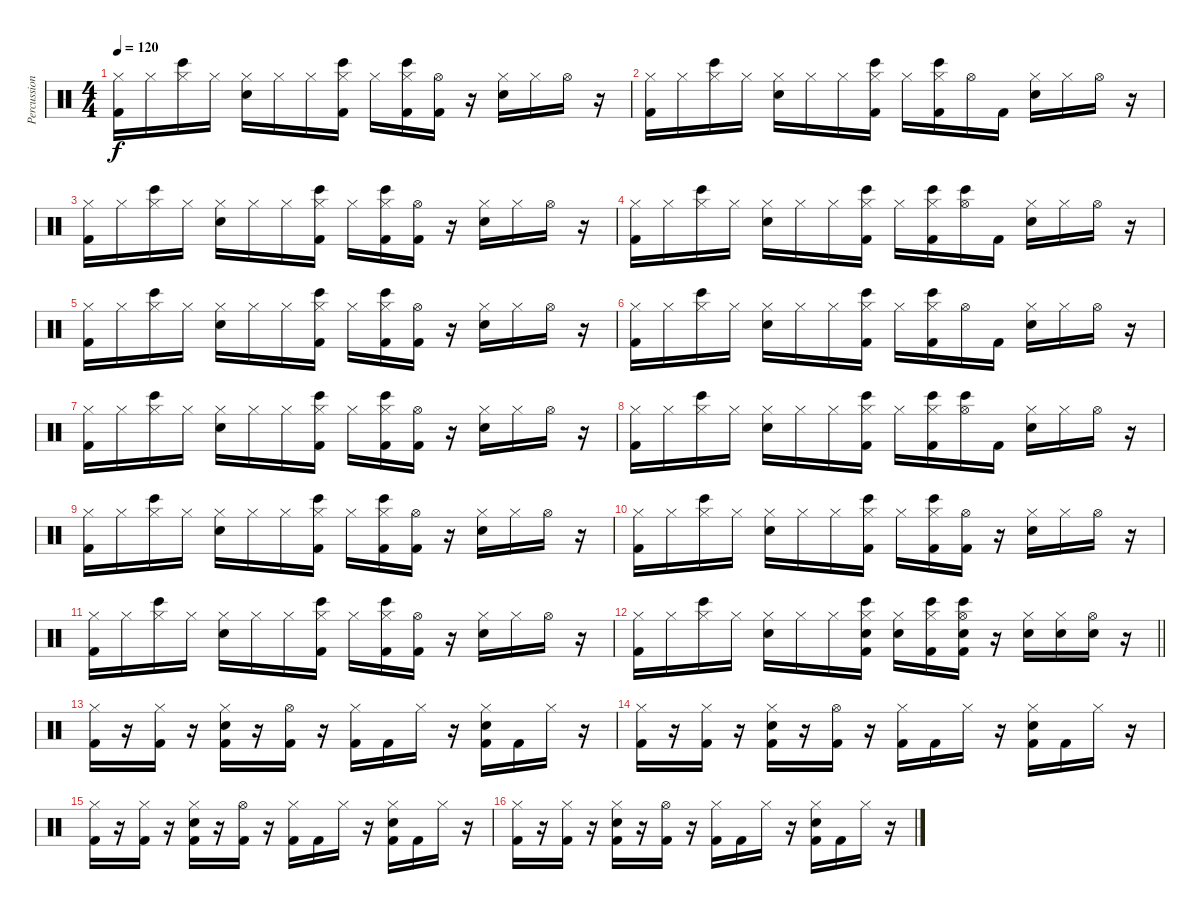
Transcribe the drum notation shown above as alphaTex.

\track ("Percussion" "Percussion") {instrument percussion}
\staff {score}
\articulation defaults
\ts (4 4)
\tempo 120
\clef neutral
\ks c
("Hi-Hat (closed)" "Kick (hit) 2").16{dy f} "Hi-Hat (closed)".16 ("Hi-Hat (closed)" "Bongo High (hit)").16 "Hi-Hat (closed)".16 ("Hi-Hat (closed)" "Snare (hit) 2").16 "Hi-Hat (closed)".16 "Hi-Hat (closed)".16 ("Hi-Hat (closed)" "Bongo High (hit)" "Kick (hit) 2").16 "Hi-Hat (closed)".16 ("Hi-Hat (closed)" "Bongo High (hit)" "Kick (hit) 2").16 ("Hi-Hat (open)" "Kick (hit) 2").16 r.16 ("Hi-Hat (closed)" "Snare (hit) 2").16 "Hi-Hat (closed)".16 "Hi-Hat (open)".16 r.16 |
("Hi-Hat (closed)" "Kick (hit) 2").16 "Hi-Hat (closed)".16 ("Hi-Hat (closed)" "Bongo High (hit)").16 "Hi-Hat (closed)".16 ("Hi-Hat (closed)" "Snare (hit) 2").16 "Hi-Hat (closed)".16 "Hi-Hat (closed)".16 ("Hi-Hat (closed)" "Bongo High (hit)" "Kick (hit) 2").16 "Hi-Hat (closed)".16 ("Hi-Hat (closed)" "Bongo High (hit)" "Kick (hit) 2").16 "Hi-Hat (open)".16 "Kick (hit) 2".16 ("Hi-Hat (closed)" "Snare (hit) 2").16 "Hi-Hat (closed)".16 "Hi-Hat (open)".16 r.16 |
("Hi-Hat (closed)" "Kick (hit) 2").16 "Hi-Hat (closed)".16 ("Hi-Hat (closed)" "Bongo High (hit)").16 "Hi-Hat (closed)".16 ("Hi-Hat (closed)" "Snare (hit) 2").16 "Hi-Hat (closed)".16 "Hi-Hat (closed)".16 ("Hi-Hat (closed)" "Bongo High (hit)" "Kick (hit) 2").16 "Hi-Hat (closed)".16 ("Hi-Hat (closed)" "Bongo High (hit)" "Kick (hit) 2").16 ("Hi-Hat (open)" "Kick (hit) 2").16 r.16 ("Hi-Hat (closed)" "Snare (hit) 2").16 "Hi-Hat (closed)".16 "Hi-Hat (open)".16 r.16 |
("Hi-Hat (closed)" "Kick (hit) 2").16 "Hi-Hat (closed)".16 ("Hi-Hat (closed)" "Bongo High (hit)").16 "Hi-Hat (closed)".16 ("Hi-Hat (closed)" "Snare (hit) 2").16 "Hi-Hat (closed)".16 "Hi-Hat (closed)".16 ("Hi-Hat (closed)" "Bongo High (hit)" "Kick (hit) 2").16 "Hi-Hat (closed)".16 ("Hi-Hat (closed)" "Bongo High (hit)" "Kick (hit) 2").16 ("Hi-Hat (open)" "Bongo High (hit)").16 "Kick (hit) 2".16 ("Hi-Hat (closed)" "Snare (hit) 2").16 "Hi-Hat (closed)".16 "Hi-Hat (open)".16 r.16 |
("Hi-Hat (closed)" "Kick (hit) 2").16 "Hi-Hat (closed)".16 ("Hi-Hat (closed)" "Bongo High (hit)").16 "Hi-Hat (closed)".16 ("Hi-Hat (closed)" "Snare (hit) 2").16 "Hi-Hat (closed)".16 "Hi-Hat (closed)".16 ("Hi-Hat (closed)" "Bongo High (hit)" "Kick (hit) 2").16 "Hi-Hat (closed)".16 ("Hi-Hat (closed)" "Bongo High (hit)" "Kick (hit) 2").16 ("Hi-Hat (open)" "Kick (hit) 2").16 r.16 ("Hi-Hat (closed)" "Snare (hit) 2").16 "Hi-Hat (closed)".16 "Hi-Hat (open)".16 r.16 |
("Hi-Hat (closed)" "Kick (hit) 2").16 "Hi-Hat (closed)".16 ("Hi-Hat (closed)" "Bongo High (hit)").16 "Hi-Hat (closed)".16 ("Hi-Hat (closed)" "Snare (hit) 2").16 "Hi-Hat (closed)".16 "Hi-Hat (closed)".16 ("Hi-Hat (closed)" "Bongo High (hit)" "Kick (hit) 2").16 "Hi-Hat (closed)".16 ("Hi-Hat (closed)" "Bongo High (hit)" "Kick (hit) 2").16 "Hi-Hat (open)".16 "Kick (hit) 2".16 ("Hi-Hat (closed)" "Snare (hit) 2").16 "Hi-Hat (closed)".16 "Hi-Hat (open)".16 r.16 |
("Hi-Hat (closed)" "Kick (hit) 2").16 "Hi-Hat (closed)".16 ("Hi-Hat (closed)" "Bongo High (hit)").16 "Hi-Hat (closed)".16 ("Hi-Hat (closed)" "Snare (hit) 2").16 "Hi-Hat (closed)".16 "Hi-Hat (closed)".16 ("Hi-Hat (closed)" "Bongo High (hit)" "Kick (hit) 2").16 "Hi-Hat (closed)".16 ("Hi-Hat (closed)" "Bongo High (hit)" "Kick (hit) 2").16 ("Hi-Hat (open)" "Kick (hit) 2").16 r.16 ("Hi-Hat (closed)" "Snare (hit) 2").16 "Hi-Hat (closed)".16 "Hi-Hat (open)".16 r.16 |
("Hi-Hat (closed)" "Kick (hit) 2").16 "Hi-Hat (closed)".16 ("Hi-Hat (closed)" "Bongo High (hit)").16 "Hi-Hat (closed)".16 ("Hi-Hat (closed)" "Snare (hit) 2").16 "Hi-Hat (closed)".16 "Hi-Hat (closed)".16 ("Hi-Hat (closed)" "Bongo High (hit)" "Kick (hit) 2").16 "Hi-Hat (closed)".16 ("Hi-Hat (closed)" "Bongo High (hit)" "Kick (hit) 2").16 ("Hi-Hat (open)" "Bongo High (hit)").16 "Kick (hit) 2".16 ("Hi-Hat (closed)" "Snare (hit) 2").16 "Hi-Hat (closed)".16 "Hi-Hat (open)".16 r.16 |
("Hi-Hat (closed)" "Kick (hit) 2").16 "Hi-Hat (closed)".16 ("Hi-Hat (closed)" "Bongo High (hit)").16 "Hi-Hat (closed)".16 ("Hi-Hat (closed)" "Snare (hit) 2").16 "Hi-Hat (closed)".16 "Hi-Hat (closed)".16 ("Hi-Hat (closed)" "Bongo High (hit)" "Kick (hit) 2").16 "Hi-Hat (closed)".16 ("Hi-Hat (closed)" "Bongo High (hit)" "Kick (hit) 2").16 ("Hi-Hat (open)" "Kick (hit) 2").16 r.16 ("Hi-Hat (closed)" "Snare (hit) 2").16 "Hi-Hat (closed)".16 "Hi-Hat (open)".16 r.16 |
("Hi-Hat (closed)" "Kick (hit) 2").16 "Hi-Hat (closed)".16 ("Hi-Hat (closed)" "Bongo High (hit)").16 "Hi-Hat (closed)".16 ("Hi-Hat (closed)" "Snare (hit) 2").16 "Hi-Hat (closed)".16 "Hi-Hat (closed)".16 ("Hi-Hat (closed)" "Bongo High (hit)" "Kick (hit) 2").16 "Hi-Hat (closed)".16 ("Hi-Hat (closed)" "Bongo High (hit)" "Kick (hit) 2").16 ("Hi-Hat (open)" "Kick (hit) 2").16 r.16 ("Hi-Hat (closed)" "Snare (hit) 2").16 "Hi-Hat (closed)".16 "Hi-Hat (open)".16 r.16 |
("Hi-Hat (closed)" "Kick (hit) 2").16 "Hi-Hat (closed)".16 ("Hi-Hat (closed)" "Bongo High (hit)").16 "Hi-Hat (closed)".16 ("Hi-Hat (closed)" "Snare (hit) 2").16 "Hi-Hat (closed)".16 "Hi-Hat (closed)".16 ("Hi-Hat (closed)" "Bongo High (hit)" "Kick (hit) 2").16 "Hi-Hat (closed)".16 ("Hi-Hat (closed)" "Bongo High (hit)" "Kick (hit) 2").16 ("Hi-Hat (open)" "Kick (hit) 2").16 r.16 ("Hi-Hat (closed)" "Snare (hit) 2").16 "Hi-Hat (closed)".16 "Hi-Hat (open)".16 r.16 |
\barLineRight lightlight
("Hi-Hat (closed)" "Kick (hit) 2").16 "Hi-Hat (closed)".16 ("Hi-Hat (closed)" "Bongo High (hit)").16 "Hi-Hat (closed)".16 ("Hi-Hat (closed)" "Snare (hit) 2").16 "Hi-Hat (closed)".16 "Hi-Hat (closed)".16 ("Hi-Hat (closed)" "Bongo High (hit)" "Snare (hit) 2" "Kick (hit) 2").16 ("Hi-Hat (closed)" "Snare (hit) 2").16 ("Hi-Hat (closed)" "Bongo High (hit)" "Kick (hit) 2").16 ("Hi-Hat (open)" "Bongo High (hit)" "Snare (hit) 2" "Kick (hit) 2").16 r.16 ("Hi-Hat (closed)" "Snare (hit) 2").16 ("Hi-Hat (closed)" "Snare (hit) 2").16 ("Hi-Hat (open)" "Snare (hit) 2").16 r.16 |
("Hi-Hat (closed)" "Kick (hit) 2").16 r.16 ("Hi-Hat (closed)" "Kick (hit) 2").16 r.16 ("Hi-Hat (closed)" "Snare (hit) 2" "Kick (hit) 2").16 r.16 ("Hi-Hat (open)" "Kick (hit) 2").16 r.16 ("Hi-Hat (closed)" "Kick (hit) 2").16 "Kick (hit) 2".16 "Hi-Hat (closed)".16 r.16 ("Hi-Hat (closed)" "Snare (hit) 2" "Kick (hit) 2").16 "Kick (hit) 2".16 "Hi-Hat (closed)".16 r.16 |
("Hi-Hat (closed)" "Kick (hit) 2").16 r.16 ("Hi-Hat (closed)" "Kick (hit) 2").16 r.16 ("Hi-Hat (closed)" "Snare (hit) 2" "Kick (hit) 2").16 r.16 ("Hi-Hat (open)" "Kick (hit) 2").16 r.16 ("Hi-Hat (closed)" "Kick (hit) 2").16 "Kick (hit) 2".16 "Hi-Hat (closed)".16 r.16 ("Hi-Hat (closed)" "Snare (hit) 2" "Kick (hit) 2").16 "Kick (hit) 2".16 "Hi-Hat (closed)".16 r.16 |
("Hi-Hat (closed)" "Kick (hit) 2").16 r.16 ("Hi-Hat (closed)" "Kick (hit) 2").16 r.16 ("Hi-Hat (closed)" "Snare (hit) 2" "Kick (hit) 2").16 r.16 ("Hi-Hat (open)" "Kick (hit) 2").16 r.16 ("Hi-Hat (closed)" "Kick (hit) 2").16 "Kick (hit) 2".16 "Hi-Hat (closed)".16 r.16 ("Hi-Hat (closed)" "Snare (hit) 2" "Kick (hit) 2").16 "Kick (hit) 2".16 "Hi-Hat (closed)".16 r.16 |
("Hi-Hat (closed)" "Kick (hit) 2").16 r.16 ("Hi-Hat (closed)" "Kick (hit) 2").16 r.16 ("Hi-Hat (closed)" "Snare (hit) 2" "Kick (hit) 2").16 r.16 ("Hi-Hat (open)" "Kick (hit) 2").16 r.16 ("Hi-Hat (closed)" "Kick (hit) 2").16 "Kick (hit) 2".16 "Hi-Hat (closed)".16 r.16 ("Hi-Hat (closed)" "Snare (hit) 2" "Kick (hit) 2").16 "Kick (hit) 2".16 "Hi-Hat (closed)".16 r.16
